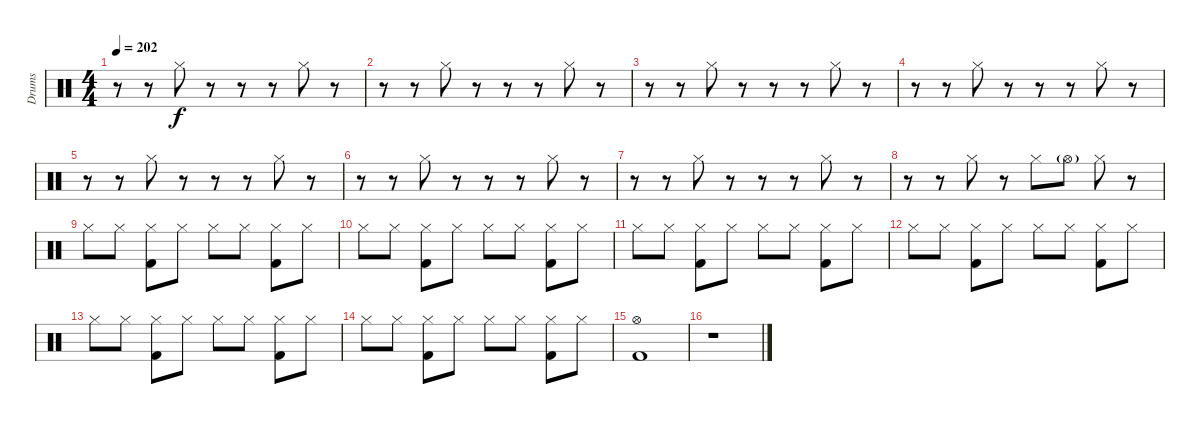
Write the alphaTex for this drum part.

\track ("Drums" "Drums") {instrument percussion}
\staff {score}
\articulation defaults
\ts (4 4)
\tempo 202
\clef neutral
\ks c
r.8{dy f} r.8 "Hi-Hat (closed)".8 r.8 r.8 r.8 "Hi-Hat (closed)".8 r.8 |
r.8 r.8 "Hi-Hat (closed)".8 r.8 r.8 r.8 "Hi-Hat (closed)".8 r.8 |
r.8 r.8 "Hi-Hat (closed)".8 r.8 r.8 r.8 "Hi-Hat (closed)".8 r.8 |
r.8 r.8 "Hi-Hat (closed)".8 r.8 r.8 r.8 "Hi-Hat (closed)".8 r.8 |
r.8 r.8 "Hi-Hat (closed)".8 r.8 r.8 r.8 "Hi-Hat (closed)".8 r.8 |
r.8 r.8 "Hi-Hat (closed)".8 r.8 r.8 r.8 "Hi-Hat (closed)".8 r.8 |
r.8 r.8 "Hi-Hat (closed)".8 r.8 r.8 r.8 "Hi-Hat (closed)".8 r.8 |
r.8 r.8 "Hi-Hat (closed)".8 r.8 "Hi-Hat (closed)".8 "Hi-Hat (open)"{g}.8 "Hi-Hat (closed)".8 r.8 |
"Hi-Hat (closed)".8 "Hi-Hat (closed)".8 ("Hi-Hat (closed)" "Kick (hit) 2").8 "Hi-Hat (closed)".8 "Hi-Hat (closed)".8 "Hi-Hat (closed)".8 ("Hi-Hat (closed)" "Kick (hit) 2").8 "Hi-Hat (closed)".8 |
"Hi-Hat (closed)".8 "Hi-Hat (closed)".8 ("Hi-Hat (closed)" "Kick (hit) 2").8 "Hi-Hat (closed)".8 "Hi-Hat (closed)".8 "Hi-Hat (closed)".8 ("Hi-Hat (closed)" "Kick (hit) 2").8 "Hi-Hat (closed)".8 |
"Hi-Hat (closed)".8 "Hi-Hat (closed)".8 ("Hi-Hat (closed)" "Kick (hit) 2").8 "Hi-Hat (closed)".8 "Hi-Hat (closed)".8 "Hi-Hat (closed)".8 ("Hi-Hat (closed)" "Kick (hit) 2").8 "Hi-Hat (closed)".8 |
"Hi-Hat (closed)".8 "Hi-Hat (closed)".8 ("Hi-Hat (closed)" "Kick (hit) 2").8 "Hi-Hat (closed)".8 "Hi-Hat (closed)".8 "Hi-Hat (closed)".8 ("Hi-Hat (closed)" "Kick (hit) 2").8 "Hi-Hat (closed)".8 |
"Hi-Hat (closed)".8 "Hi-Hat (closed)".8 ("Hi-Hat (closed)" "Kick (hit) 2").8 "Hi-Hat (closed)".8 "Hi-Hat (closed)".8 "Hi-Hat (closed)".8 ("Hi-Hat (closed)" "Kick (hit) 2").8 "Hi-Hat (closed)".8 |
"Hi-Hat (closed)".8 "Hi-Hat (closed)".8 ("Hi-Hat (closed)" "Kick (hit) 2").8 "Hi-Hat (closed)".8 "Hi-Hat (closed)".8 "Hi-Hat (closed)".8 ("Hi-Hat (closed)" "Kick (hit) 2").8 "Hi-Hat (closed)".8 |
("Hi-Hat (open)" "Kick (hit) 2").1 |
r.1
